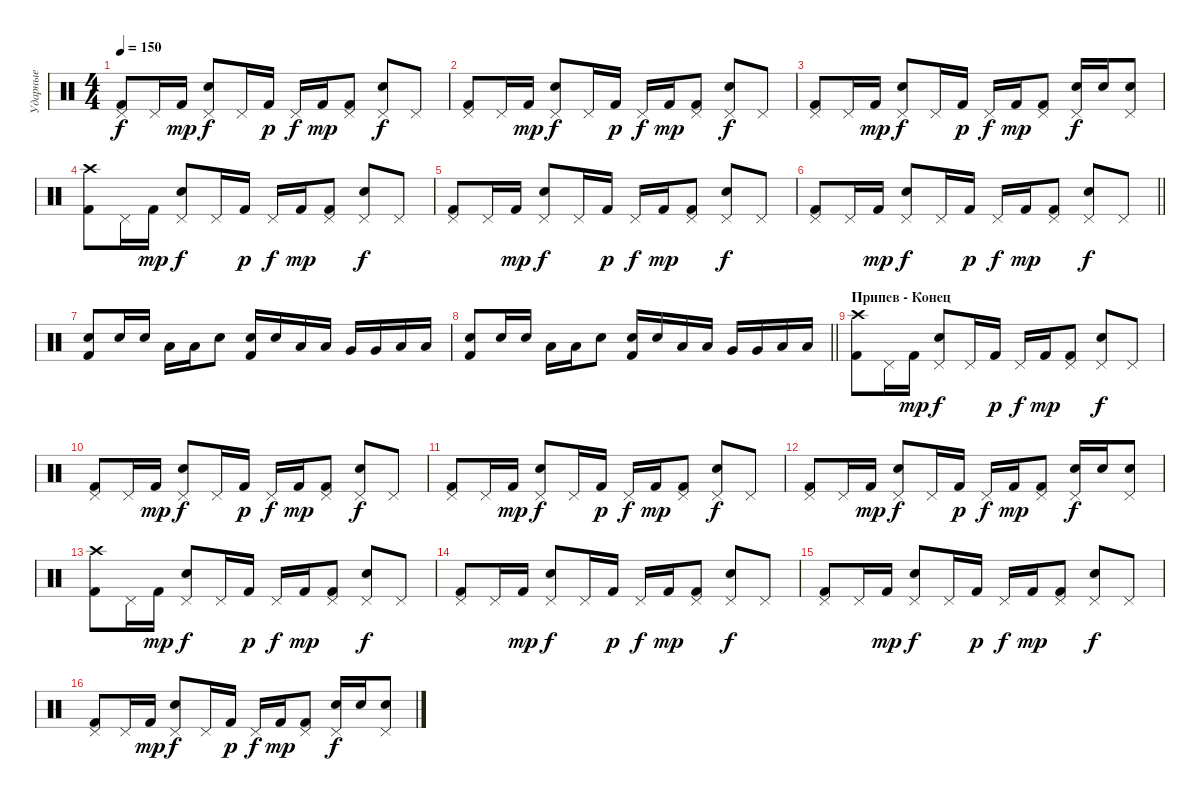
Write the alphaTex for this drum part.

\track ("Ударные" "Ударные") {instrument percussion}
\staff {score}
\articulation defaults
\ts (4 4)
\tempo 150
\clef neutral
\ks c
("Pedal Hi-Hat (hit)" "Kick (hit) 2").8{dy f} "Pedal Hi-Hat (hit)".16 "Kick (hit) 2".16{dy mp} ("Pedal Hi-Hat (hit)" "Snare (hit) 2").8{dy f} "Pedal Hi-Hat (hit)".16 "Kick (hit) 2".16{dy p} "Pedal Hi-Hat (hit)".16{dy f} "Kick (hit) 2".16{dy mp} ("Pedal Hi-Hat (hit)" "Kick (hit) 2").8 ("Pedal Hi-Hat (hit)" "Snare (hit) 2").8{dy f} "Pedal Hi-Hat (hit)".8 |
("Pedal Hi-Hat (hit)" "Kick (hit) 2").8 "Pedal Hi-Hat (hit)".16 "Kick (hit) 2".16{dy mp} ("Pedal Hi-Hat (hit)" "Snare (hit) 2").8{dy f} "Pedal Hi-Hat (hit)".16 "Kick (hit) 2".16{dy p} "Pedal Hi-Hat (hit)".16{dy f} "Kick (hit) 2".16{dy mp} ("Pedal Hi-Hat (hit)" "Kick (hit) 2").8 ("Pedal Hi-Hat (hit)" "Snare (hit) 2").8{dy f} "Pedal Hi-Hat (hit)".8 |
("Pedal Hi-Hat (hit)" "Kick (hit) 2").8 "Pedal Hi-Hat (hit)".16 "Kick (hit) 2".16{dy mp} ("Pedal Hi-Hat (hit)" "Snare (hit) 2").8{dy f} "Pedal Hi-Hat (hit)".16 "Kick (hit) 2".16{dy p} "Pedal Hi-Hat (hit)".16{dy f} "Kick (hit) 2".16{dy mp} ("Pedal Hi-Hat (hit)" "Kick (hit) 2").8 ("Pedal Hi-Hat (hit)" "Snare (hit) 2").16{dy f} "Snare (hit) 2".16 ("Pedal Hi-Hat (hit)" "Snare (hit) 2").8 |
("Crash high (hit)" "Kick (hit) 2").8 "Pedal Hi-Hat (hit)".16 "Kick (hit) 2".16{dy mp} ("Pedal Hi-Hat (hit)" "Snare (hit) 2").8{dy f} "Pedal Hi-Hat (hit)".16 "Kick (hit) 2".16{dy p} "Pedal Hi-Hat (hit)".16{dy f} "Kick (hit) 2".16{dy mp} ("Pedal Hi-Hat (hit)" "Kick (hit) 2").8 ("Pedal Hi-Hat (hit)" "Snare (hit) 2").8{dy f} "Pedal Hi-Hat (hit)".8 |
("Pedal Hi-Hat (hit)" "Kick (hit) 2").8 "Pedal Hi-Hat (hit)".16 "Kick (hit) 2".16{dy mp} ("Pedal Hi-Hat (hit)" "Snare (hit) 2").8{dy f} "Pedal Hi-Hat (hit)".16 "Kick (hit) 2".16{dy p} "Pedal Hi-Hat (hit)".16{dy f} "Kick (hit) 2".16{dy mp} ("Pedal Hi-Hat (hit)" "Kick (hit) 2").8 ("Pedal Hi-Hat (hit)" "Snare (hit) 2").8{dy f} "Pedal Hi-Hat (hit)".8 |
\barLineRight lightlight
("Pedal Hi-Hat (hit)" "Kick (hit) 2").8 "Pedal Hi-Hat (hit)".16 "Kick (hit) 2".16{dy mp} ("Pedal Hi-Hat (hit)" "Snare (hit) 2").8{dy f} "Pedal Hi-Hat (hit)".16 "Kick (hit) 2".16{dy p} "Pedal Hi-Hat (hit)".16{dy f} "Kick (hit) 2".16{dy mp} ("Pedal Hi-Hat (hit)" "Kick (hit) 2").8 ("Pedal Hi-Hat (hit)" "Snare (hit) 2").8{dy f} "Pedal Hi-Hat (hit)".8 |
("Snare (hit) 2" "Kick (hit) 2").8 "Snare (hit) 2".16 "Snare (hit) 2".16 "Low Floor Tom (hit)".16 "Low Floor Tom (hit)".16 "Snare (hit) 2".8 ("Snare (hit) 2" "Kick (hit) 2").16 "Snare (hit) 2".16 "Low Tom (hit)".16 "Low Tom (hit)".16 "Very Low Tom (hit)".16 "Very Low Tom (hit)".16 "Low Floor Tom (hit)".16 "Low Floor Tom (hit)".16 |
\barLineRight lightlight
("Snare (hit) 2" "Kick (hit) 2").8 "Snare (hit) 2".16 "Snare (hit) 2".16 "Low Floor Tom (hit)".16 "Low Floor Tom (hit)".16 "Snare (hit) 2".8 ("Snare (hit) 2" "Kick (hit) 2").16 "Snare (hit) 2".16 "Low Tom (hit)".16 "Low Tom (hit)".16 "Very Low Tom (hit)".16 "Very Low Tom (hit)".16 "Low Floor Tom (hit)".16 "Low Floor Tom (hit)".16 |
\section ("" "Припев - Конец")
("Crash high (hit)" "Kick (hit) 2").8 "Pedal Hi-Hat (hit)".16 "Kick (hit) 2".16{dy mp} ("Pedal Hi-Hat (hit)" "Snare (hit) 2").8{dy f} "Pedal Hi-Hat (hit)".16 "Kick (hit) 2".16{dy p} "Pedal Hi-Hat (hit)".16{dy f} "Kick (hit) 2".16{dy mp} ("Pedal Hi-Hat (hit)" "Kick (hit) 2").8 ("Pedal Hi-Hat (hit)" "Snare (hit) 2").8{dy f} "Pedal Hi-Hat (hit)".8 |
("Pedal Hi-Hat (hit)" "Kick (hit) 2").8 "Pedal Hi-Hat (hit)".16 "Kick (hit) 2".16{dy mp} ("Pedal Hi-Hat (hit)" "Snare (hit) 2").8{dy f} "Pedal Hi-Hat (hit)".16 "Kick (hit) 2".16{dy p} "Pedal Hi-Hat (hit)".16{dy f} "Kick (hit) 2".16{dy mp} ("Pedal Hi-Hat (hit)" "Kick (hit) 2").8 ("Pedal Hi-Hat (hit)" "Snare (hit) 2").8{dy f} "Pedal Hi-Hat (hit)".8 |
("Pedal Hi-Hat (hit)" "Kick (hit) 2").8 "Pedal Hi-Hat (hit)".16 "Kick (hit) 2".16{dy mp} ("Pedal Hi-Hat (hit)" "Snare (hit) 2").8{dy f} "Pedal Hi-Hat (hit)".16 "Kick (hit) 2".16{dy p} "Pedal Hi-Hat (hit)".16{dy f} "Kick (hit) 2".16{dy mp} ("Pedal Hi-Hat (hit)" "Kick (hit) 2").8 ("Pedal Hi-Hat (hit)" "Snare (hit) 2").8{dy f} "Pedal Hi-Hat (hit)".8 |
("Pedal Hi-Hat (hit)" "Kick (hit) 2").8 "Pedal Hi-Hat (hit)".16 "Kick (hit) 2".16{dy mp} ("Pedal Hi-Hat (hit)" "Snare (hit) 2").8{dy f} "Pedal Hi-Hat (hit)".16 "Kick (hit) 2".16{dy p} "Pedal Hi-Hat (hit)".16{dy f} "Kick (hit) 2".16{dy mp} ("Pedal Hi-Hat (hit)" "Kick (hit) 2").8 ("Pedal Hi-Hat (hit)" "Snare (hit) 2").16{dy f} "Snare (hit) 2".16 ("Pedal Hi-Hat (hit)" "Snare (hit) 2").8 |
("Crash high (hit)" "Kick (hit) 2").8 "Pedal Hi-Hat (hit)".16 "Kick (hit) 2".16{dy mp} ("Pedal Hi-Hat (hit)" "Snare (hit) 2").8{dy f} "Pedal Hi-Hat (hit)".16 "Kick (hit) 2".16{dy p} "Pedal Hi-Hat (hit)".16{dy f} "Kick (hit) 2".16{dy mp} ("Pedal Hi-Hat (hit)" "Kick (hit) 2").8 ("Pedal Hi-Hat (hit)" "Snare (hit) 2").8{dy f} "Pedal Hi-Hat (hit)".8 |
("Pedal Hi-Hat (hit)" "Kick (hit) 2").8 "Pedal Hi-Hat (hit)".16 "Kick (hit) 2".16{dy mp} ("Pedal Hi-Hat (hit)" "Snare (hit) 2").8{dy f} "Pedal Hi-Hat (hit)".16 "Kick (hit) 2".16{dy p} "Pedal Hi-Hat (hit)".16{dy f} "Kick (hit) 2".16{dy mp} ("Pedal Hi-Hat (hit)" "Kick (hit) 2").8 ("Pedal Hi-Hat (hit)" "Snare (hit) 2").8{dy f} "Pedal Hi-Hat (hit)".8 |
("Pedal Hi-Hat (hit)" "Kick (hit) 2").8 "Pedal Hi-Hat (hit)".16 "Kick (hit) 2".16{dy mp} ("Pedal Hi-Hat (hit)" "Snare (hit) 2").8{dy f} "Pedal Hi-Hat (hit)".16 "Kick (hit) 2".16{dy p} "Pedal Hi-Hat (hit)".16{dy f} "Kick (hit) 2".16{dy mp} ("Pedal Hi-Hat (hit)" "Kick (hit) 2").8 ("Pedal Hi-Hat (hit)" "Snare (hit) 2").8{dy f} "Pedal Hi-Hat (hit)".8 |
("Pedal Hi-Hat (hit)" "Kick (hit) 2").8 "Pedal Hi-Hat (hit)".16 "Kick (hit) 2".16{dy mp} ("Pedal Hi-Hat (hit)" "Snare (hit) 2").8{dy f} "Pedal Hi-Hat (hit)".16 "Kick (hit) 2".16{dy p} "Pedal Hi-Hat (hit)".16{dy f} "Kick (hit) 2".16{dy mp} ("Pedal Hi-Hat (hit)" "Kick (hit) 2").8 ("Pedal Hi-Hat (hit)" "Snare (hit) 2").16{dy f} "Snare (hit) 2".16 ("Pedal Hi-Hat (hit)" "Snare (hit) 2").8
